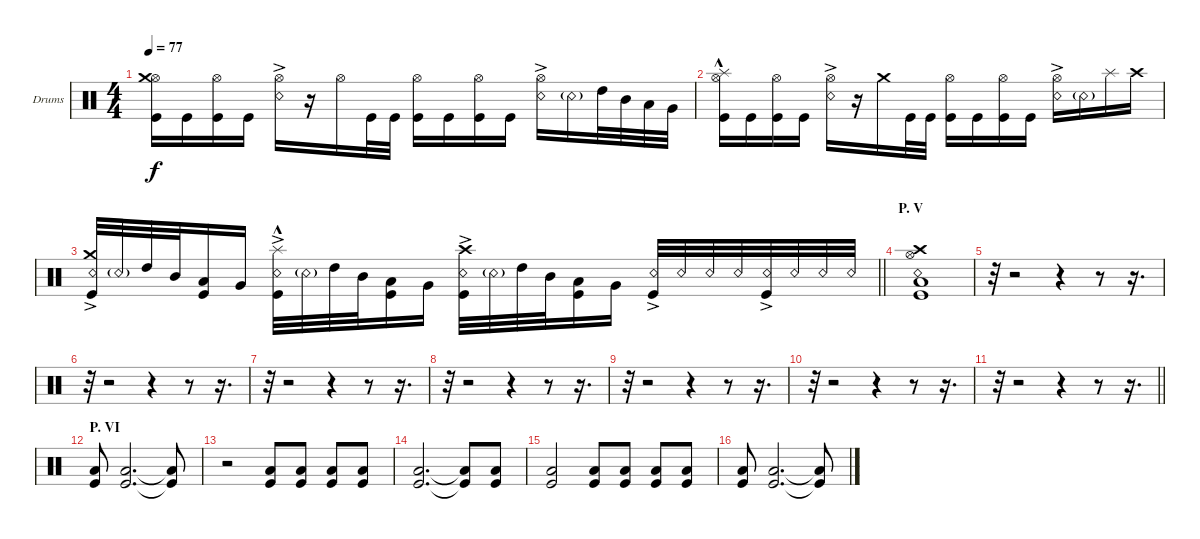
\bracketExtendMode groupsimilarinstruments
\firstSystemTrackNameOrientation horizontal
\otherSystemsTrackNameOrientation horizontal
\track ("Drumkit" "Drums") {instrument percussion}
\staff {score}
\articulation defaults
\ts (4 4)
\tempo 77
\clef neutral
\ks c
("Hi-Hat (open)" "Kick (hit)" "Crash medium (hit)").16{dy f} "Kick (hit)".16 ("Hi-Hat (open)" "Kick (hit)").16 "Kick (hit)".16 ("Hi-Hat (open)" "Snare (rim shot)"{ac}).16 r.16 "Hi-Hat (open)".16 "Kick (hit)".32 "Kick (hit)".32 ("Hi-Hat (open)" "Kick (hit)").16 "Kick (hit)".16 ("Hi-Hat (open)" "Kick (hit)").16 "Kick (hit)".16 ("Hi-Hat (open)" "Snare (rim shot)"{ac}).16 "Snare (rim shot)"{g}.16 "High Tom (hit)".32 "Mid Tom (hit)".32 "Low Tom (hit)".32 "Very Low Tom (hit)".32 |
("Hi-Hat (open)" "Kick (hit)" "Splash (hit)"{hac}).16 "Kick (hit)".16 ("Hi-Hat (open)" "Kick (hit)").16 "Kick (hit)".16 ("Hi-Hat (open)" "Snare (rim shot)"{ac}).16 r.16 "Crash medium (hit)".16 "Kick (hit)".32 "Kick (hit)".32 ("Hi-Hat (open)" "Kick (hit)").16 "Kick (hit)".16 ("Hi-Hat (open)" "Kick (hit)").16 "Kick (hit)".16 ("Hi-Hat (open)" "Snare (rim shot)"{ac}).16 "Snare (rim shot)"{g}.16 "Splash (hit)".16 "Crash high (hit)".16 |
\barLineRight lightlight
("Snare (rim shot)"{ac} "Kick (hit)" "Crash medium (hit)").32 "Snare (rim shot)"{g}.32 "High Tom (hit)".32 "Mid Tom (hit)".32 ("Kick (hit)" "Low Tom (hit)").16 "Very Low Tom (hit)".16 ("Snare (rim shot)"{ac} "Kick (hit)" "Splash (hit)"{hac}).32 "Snare (rim shot)"{g}.32 "High Tom (hit)".32 "Mid Tom (hit)".32 ("Kick (hit)" "Low Tom (hit)").16 "Very Low Tom (hit)".16 ("Snare (rim shot)"{ac} "Kick (hit)" "Crash high (hit)").32 "Snare (rim shot)"{g}.32 "High Tom (hit)".32 "Mid Tom (hit)".32 ("Kick (hit)" "Low Tom (hit)").16 "Very Low Tom (hit)".16 ("Snare (rim shot)"{ac} "Kick (hit)").32 "Snare (rim shot)".32 "Snare (rim shot)".32 "Snare (rim shot)".32 ("Snare (rim shot)"{ac} "Kick (hit)").32 "Snare (rim shot)".32 "Snare (rim shot)".32 "Snare (rim shot)".32 |
\section ("" "P. V")
("Hi-Hat (open)" "Snare (rim shot)" "Kick (hit)" "Crash high (hit)" "Low Tom (hit)").1 |
r.32 r.2 r.4 r.8 r.16{d} |
r.32 r.2 r.4 r.8 r.16{d} |
r.32 r.2 r.4 r.8 r.16{d} |
r.32 r.2 r.4 r.8 r.16{d} |
r.32 r.2 r.4 r.8 r.16{d} |
r.32 r.2 r.4 r.8 r.16{d} |
\barLineRight lightlight
r.32 r.2 r.4 r.8 r.16{d} |
\section ("" "P. VI")
("Kick (hit)" "Low Tom (hit)").8 ("Kick (hit)" "Low Tom (hit)").2{d} ("Kick (hit)"{t} "Low Tom (hit)"{t}).8 |
r.2 ("Kick (hit)" "Low Tom (hit)").8 ("Kick (hit)" "Low Tom (hit)").8 ("Kick (hit)" "Low Tom (hit)").8 ("Kick (hit)" "Low Tom (hit)").8 |
("Kick (hit)" "Low Tom (hit)").2{d} ("Kick (hit)"{t} "Low Tom (hit)"{t}).8 ("Kick (hit)" "Low Tom (hit)").8 |
("Kick (hit)" "Low Tom (hit)").2 ("Kick (hit)" "Low Tom (hit)").8 ("Kick (hit)" "Low Tom (hit)").8 ("Kick (hit)" "Low Tom (hit)").8 ("Kick (hit)" "Low Tom (hit)").8 |
("Kick (hit)" "Low Tom (hit)").8 ("Kick (hit)" "Low Tom (hit)").2{d} ("Kick (hit)"{t} "Low Tom (hit)"{t}).8
